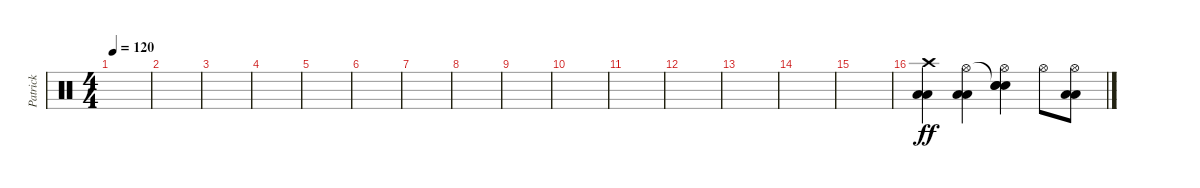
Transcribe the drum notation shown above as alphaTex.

\track ("Patrick" "Patrick") {instrument percussion}
\staff {score}
\articulation defaults
\ts (4 4)
\tempo 120
\clef neutral
\ks c
|
|
|
|
|
|
|
|
|
|
|
|
|
|
|
("Crash high (hit)" "Low Floor Tom (hit)" "Low Floor Tom (hit)").4{dy ff} ("Hi-Hat (open)" "Low Floor Tom (hit)" "Low Floor Tom (hit)").4 ("Snare (hit)"{t} "Hi-Hat (open)" "Electric Snare (hit)" "Electric Snare (hit)").4 "Hi-Hat (open)".8 ("Hi-Hat (open)" "Low Floor Tom (hit)" "Low Floor Tom (hit)").8
